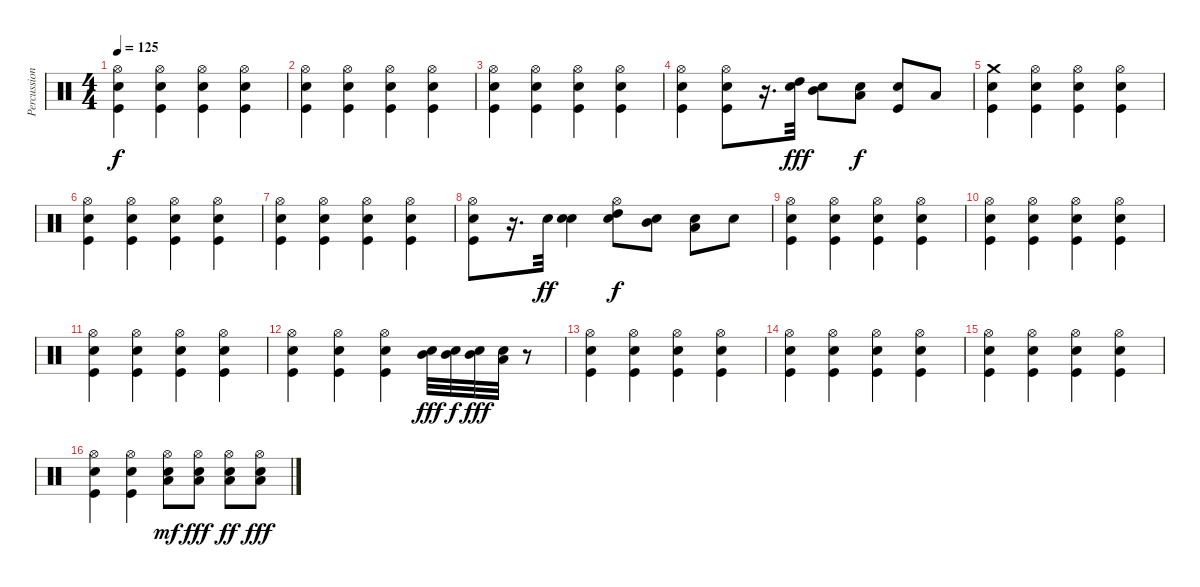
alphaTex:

\track ("Percussion" "Percussion") {instrument percussion}
\staff {score}
\articulation defaults
\ts (4 4)
\tempo 125
\clef neutral
\ks c
("Hi-Hat (open)" "Snare (hit) 2" "Kick (hit)").4{dy f} ("Hi-Hat (open)" "Snare (hit) 2" "Kick (hit)").4 ("Hi-Hat (open)" "Snare (hit) 2" "Kick (hit)").4 ("Hi-Hat (open)" "Snare (hit) 2" "Kick (hit)").4 |
("Hi-Hat (open)" "Snare (hit) 2" "Kick (hit)").4 ("Hi-Hat (open)" "Snare (hit) 2" "Kick (hit)").4 ("Hi-Hat (open)" "Snare (hit) 2" "Kick (hit)").4 ("Hi-Hat (open)" "Snare (hit) 2" "Kick (hit)").4 |
("Hi-Hat (open)" "Snare (hit) 2" "Kick (hit)").4 ("Hi-Hat (open)" "Snare (hit) 2" "Kick (hit)").4 ("Hi-Hat (open)" "Snare (hit) 2" "Kick (hit)").4 ("Hi-Hat (open)" "Snare (hit) 2" "Kick (hit)").4 |
("Hi-Hat (open)" "Snare (hit) 2" "Kick (hit)").4 ("Hi-Hat (open)" "Snare (hit) 2" "Kick (hit)").8 r.16{d} ("High Tom (hit)" "Snare (hit) 2").32{dy fff volume 16} ("Mid Tom (hit)" "Snare (hit) 2").8 ("Low Tom (hit)" "Snare (hit) 2").8{dy f} ("Snare (hit) 2" "Kick (hit)").8 "Low Tom (hit)".8 |
("Crash medium (hit)" "Snare (hit) 2" "Kick (hit)").4{volume 13} ("Hi-Hat (open)" "Snare (hit) 2" "Kick (hit)").4 ("Hi-Hat (open)" "Snare (hit) 2" "Kick (hit)").4 ("Hi-Hat (open)" "Snare (hit) 2" "Kick (hit)").4 |
("Hi-Hat (open)" "Snare (hit) 2" "Kick (hit)").4 ("Hi-Hat (open)" "Snare (hit) 2" "Kick (hit)").4 ("Hi-Hat (open)" "Snare (hit) 2" "Kick (hit)").4 ("Hi-Hat (open)" "Snare (hit) 2" "Kick (hit)").4 |
("Hi-Hat (open)" "Snare (hit) 2" "Kick (hit)").4 ("Hi-Hat (open)" "Snare (hit) 2" "Kick (hit)").4 ("Hi-Hat (open)" "Snare (hit) 2" "Kick (hit)").4 ("Hi-Hat (open)" "Snare (hit) 2" "Kick (hit)").4 |
("Hi-Hat (open)" "Snare (hit) 2" "Kick (hit)").8 r.16{d} "Snare (hit) 2".32{dy ff} ("Snare (hit) 2" "Electric Snare (hit)").4 ("Hi-Hat (open)" "High Tom (hit)" "Electric Snare (hit)").8{dy f volume 16} ("Mid Tom (hit)" "Electric Snare (hit)").8 ("Low Tom (hit)" "Electric Snare (hit)").8 "Snare (hit) 2".8 |
("Hi-Hat (open)" "Snare (hit) 2" "Kick (hit)").4{volume 13} ("Hi-Hat (open)" "Snare (hit) 2" "Kick (hit)").4 ("Hi-Hat (open)" "Snare (hit) 2" "Kick (hit)").4 ("Hi-Hat (open)" "Snare (hit) 2" "Kick (hit)").4 |
("Hi-Hat (open)" "Snare (hit) 2" "Kick (hit)").4 ("Hi-Hat (open)" "Snare (hit) 2" "Kick (hit)").4 ("Hi-Hat (open)" "Snare (hit) 2" "Kick (hit)").4 ("Hi-Hat (open)" "Snare (hit) 2" "Kick (hit)").4 |
("Hi-Hat (open)" "Snare (hit) 2" "Kick (hit)").4 ("Hi-Hat (open)" "Snare (hit) 2" "Kick (hit)").4 ("Hi-Hat (open)" "Snare (hit) 2" "Kick (hit)").4 ("Hi-Hat (open)" "Snare (hit) 2" "Kick (hit)").4 |
("Hi-Hat (open)" "Snare (hit) 2" "Kick (hit)").4 ("Hi-Hat (open)" "Snare (hit) 2" "Kick (hit)").4 ("Hi-Hat (open)" "Snare (hit) 2" "Kick (hit)").4 ("Mid Tom (hit)" "Electric Snare (hit)").32{dy fff} ("Mid Tom (hit)" "Electric Snare (hit)").32{dy f} ("Mid Tom (hit)" "Electric Snare (hit)").32{dy fff} ("Low Tom (hit)" "Snare (hit) 2").32 r.8 |
("Hi-Hat (open)" "Electric Snare (hit)" "Kick (hit)").4{volume 16} ("Hi-Hat (open)" "Electric Snare (hit)" "Kick (hit)").4 ("Hi-Hat (open)" "Electric Snare (hit)" "Kick (hit)").4 ("Hi-Hat (open)" "Electric Snare (hit)" "Kick (hit)").4 |
("Hi-Hat (open)" "Electric Snare (hit)" "Kick (hit)").4 ("Hi-Hat (open)" "Electric Snare (hit)" "Kick (hit)").4 ("Hi-Hat (open)" "Electric Snare (hit)" "Kick (hit)").4 ("Hi-Hat (open)" "Electric Snare (hit)" "Kick (hit)").4 |
("Hi-Hat (open)" "Electric Snare (hit)" "Kick (hit)").4 ("Hi-Hat (open)" "Electric Snare (hit)" "Kick (hit)").4 ("Hi-Hat (open)" "Electric Snare (hit)" "Kick (hit)").4 ("Hi-Hat (open)" "Electric Snare (hit)" "Kick (hit)").4 |
("Hi-Hat (open)" "Electric Snare (hit)" "Kick (hit)").4 ("Hi-Hat (open)" "Electric Snare (hit)" "Kick (hit)").4 ("Hi-Hat (open)" "Low Tom (hit)" "Electric Snare (hit)").8{dy mf} ("Hi-Hat (open)" "Low Tom (hit)" "Electric Snare (hit)").8{dy fff} ("Hi-Hat (open)" "Low Tom (hit)" "Electric Snare (hit)").8{dy ff} ("Hi-Hat (open)" "Low Tom (hit)" "Electric Snare (hit)").8{dy fff}
